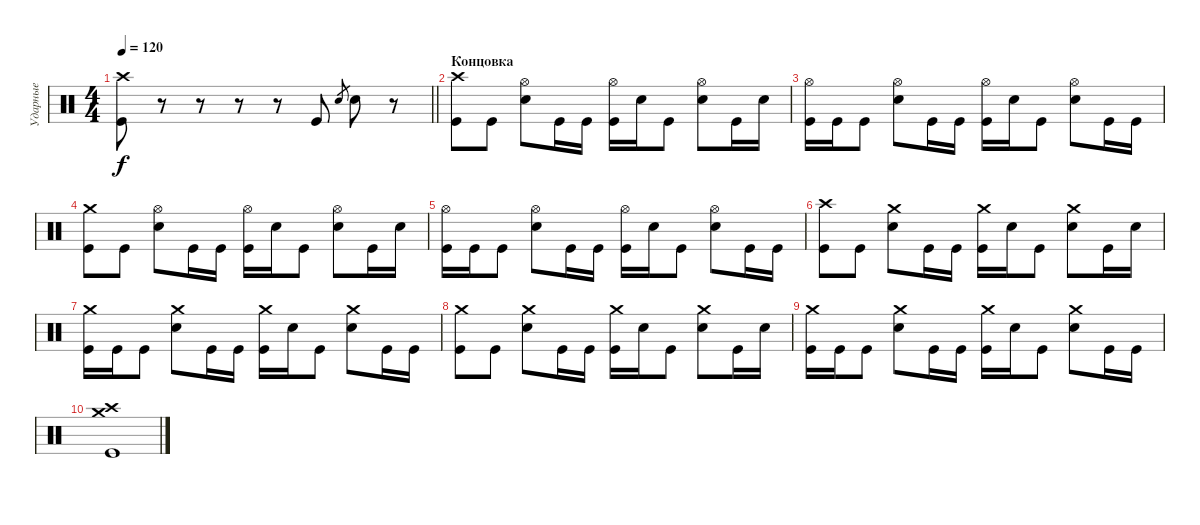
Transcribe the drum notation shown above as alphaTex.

\track ("Ударные" "Ударные") {solo instrument percussion}
\staff {score}
\articulation defaults
\ts (4 4)
\tempo 120
\clef neutral
\barLineRight lightlight
\ks c
("Kick (hit)" "Crash high (hit)").8{dy f} r.8 r.8 r.8 r.8 "Kick (hit)".8 "Snare (hit) 2".8{gr} "Snare (hit) 2".8 r.8 |
\section ("" "Концовка")
("Kick (hit)" "Crash high (hit)").8 "Kick (hit)".8 ("Snare (hit) 2" "Hi-Hat (open)").8 "Kick (hit)".16 "Kick (hit)".16 ("Kick (hit)" "Hi-Hat (open)").16 "Snare (hit) 2".16 "Kick (hit)".8 ("Snare (hit) 2" "Hi-Hat (open)").8 "Kick (hit)".16 "Snare (hit) 2".16 |
("Kick (hit)" "Hi-Hat (open)").16 "Kick (hit)".16 "Kick (hit)".8 ("Snare (hit) 2" "Hi-Hat (open)").8 "Kick (hit)".16 "Kick (hit)".16 ("Kick (hit)" "Hi-Hat (open)").16 "Snare (hit) 2".16 "Kick (hit)".8 ("Snare (hit) 2" "Hi-Hat (open)").8 "Kick (hit)".16 "Kick (hit)".16 |
("Kick (hit)" "Crash medium (hit)").8 "Kick (hit)".8 ("Snare (hit) 2" "Hi-Hat (open)").8 "Kick (hit)".16 "Kick (hit)".16 ("Kick (hit)" "Hi-Hat (open)").16 "Snare (hit) 2".16 "Kick (hit)".8 ("Snare (hit) 2" "Hi-Hat (open)").8 "Kick (hit)".16 "Snare (hit) 2".16 |
("Kick (hit)" "Hi-Hat (open)").16 "Kick (hit)".16 "Kick (hit)".8 ("Snare (hit) 2" "Hi-Hat (open)").8 "Kick (hit)".16 "Kick (hit)".16 ("Kick (hit)" "Hi-Hat (open)").16 "Snare (hit) 2".16 "Kick (hit)".8 ("Snare (hit) 2" "Hi-Hat (open)").8 "Kick (hit)".16 "Kick (hit)".16 |
("Kick (hit)" "Crash high (hit)").8 "Kick (hit)".8 ("Snare (hit) 2" "Crash medium (hit)").8 "Kick (hit)".16 "Kick (hit)".16 ("Kick (hit)" "Crash medium (hit)").16 "Snare (hit) 2".16 "Kick (hit)".8 ("Snare (hit) 2" "Crash medium (hit)").8 "Kick (hit)".16 "Snare (hit) 2".16 |
("Kick (hit)" "Crash medium (hit)").16 "Kick (hit)".16 "Kick (hit)".8 ("Snare (hit) 2" "Crash medium (hit)").8 "Kick (hit)".16 "Kick (hit)".16 ("Kick (hit)" "Crash medium (hit)").16 "Snare (hit) 2".16 "Kick (hit)".8 ("Snare (hit) 2" "Crash medium (hit)").8 "Kick (hit)".16 "Kick (hit)".16 |
("Kick (hit)" "Crash medium (hit)").8 "Kick (hit)".8 ("Snare (hit) 2" "Crash medium (hit)").8 "Kick (hit)".16 "Kick (hit)".16 ("Kick (hit)" "Crash medium (hit)").16 "Snare (hit) 2".16 "Kick (hit)".8 ("Snare (hit) 2" "Crash medium (hit)").8 "Kick (hit)".16 "Snare (hit) 2".16 |
("Kick (hit)" "Crash medium (hit)").16 "Kick (hit)".16 "Kick (hit)".8 ("Snare (hit) 2" "Crash medium (hit)").8 "Kick (hit)".16 "Kick (hit)".16 ("Kick (hit)" "Crash medium (hit)").16 "Snare (hit) 2".16 "Kick (hit)".8 ("Snare (hit) 2" "Crash medium (hit)").8 "Kick (hit)".16 "Kick (hit)".16 |
("Kick (hit)" "Crash high (hit)" "Crash medium (hit)").1
